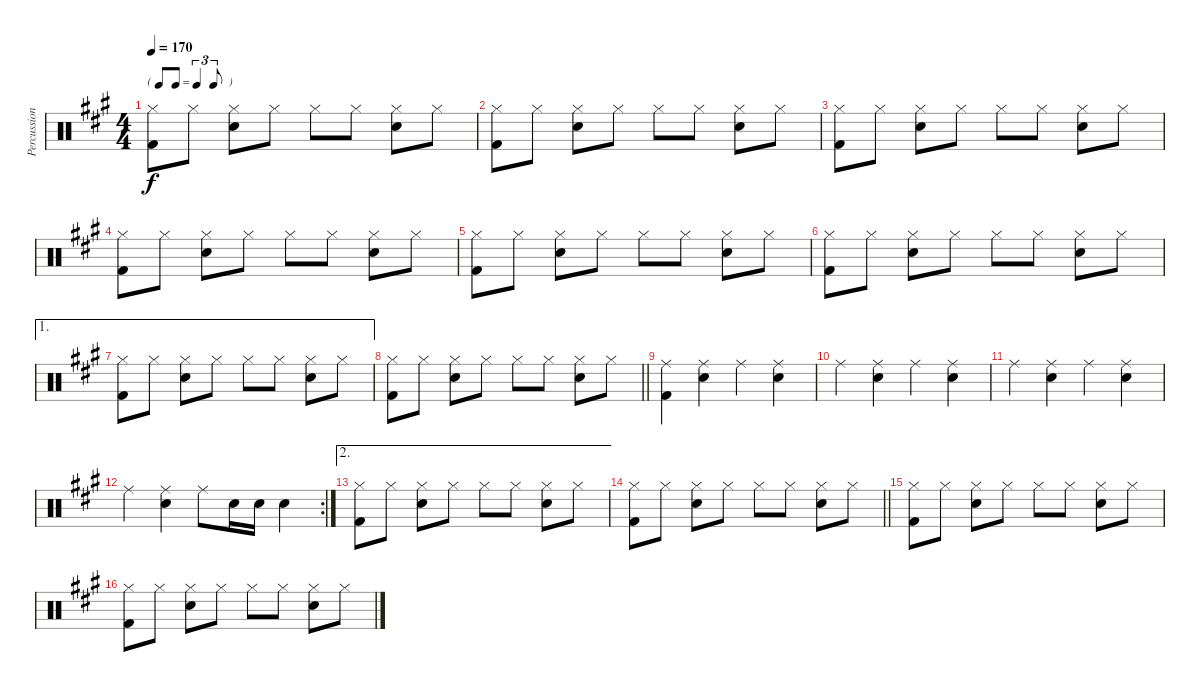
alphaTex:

\track ("Percussion" "Percussion") {instrument percussion}
\staff {score}
\articulation defaults
\ts (4 4)
\tf triplet8th
\tempo 170
\clef neutral
\ks a
("Hi-Hat (closed)" "Kick (hit) 2").8{dy f} "Hi-Hat (closed)".8 ("Hi-Hat (closed)" "Snare (hit) 2").8 "Hi-Hat (closed)".8 "Hi-Hat (closed)".8 "Hi-Hat (closed)".8 ("Hi-Hat (closed)" "Snare (hit) 2").8 "Hi-Hat (closed)".8 |
("Hi-Hat (closed)" "Kick (hit) 2").8 "Hi-Hat (closed)".8 ("Hi-Hat (closed)" "Snare (hit) 2").8 "Hi-Hat (closed)".8 "Hi-Hat (closed)".8 "Hi-Hat (closed)".8 ("Hi-Hat (closed)" "Snare (hit) 2").8 "Hi-Hat (closed)".8 |
("Hi-Hat (closed)" "Kick (hit) 2").8 "Hi-Hat (closed)".8 ("Hi-Hat (closed)" "Snare (hit) 2").8 "Hi-Hat (closed)".8 "Hi-Hat (closed)".8 "Hi-Hat (closed)".8 ("Hi-Hat (closed)" "Snare (hit) 2").8 "Hi-Hat (closed)".8 |
("Hi-Hat (closed)" "Kick (hit) 2").8 "Hi-Hat (closed)".8 ("Hi-Hat (closed)" "Snare (hit) 2").8 "Hi-Hat (closed)".8 "Hi-Hat (closed)".8 "Hi-Hat (closed)".8 ("Hi-Hat (closed)" "Snare (hit) 2").8 "Hi-Hat (closed)".8 |
("Hi-Hat (closed)" "Kick (hit) 2").8 "Hi-Hat (closed)".8 ("Hi-Hat (closed)" "Snare (hit) 2").8 "Hi-Hat (closed)".8 "Hi-Hat (closed)".8 "Hi-Hat (closed)".8 ("Hi-Hat (closed)" "Snare (hit) 2").8 "Hi-Hat (closed)".8 |
("Hi-Hat (closed)" "Kick (hit) 2").8 "Hi-Hat (closed)".8 ("Hi-Hat (closed)" "Snare (hit) 2").8 "Hi-Hat (closed)".8 "Hi-Hat (closed)".8 "Hi-Hat (closed)".8 ("Hi-Hat (closed)" "Snare (hit) 2").8 "Hi-Hat (closed)".8 |
\ae 1
("Hi-Hat (closed)" "Kick (hit) 2").8 "Hi-Hat (closed)".8 ("Hi-Hat (closed)" "Snare (hit) 2").8 "Hi-Hat (closed)".8 "Hi-Hat (closed)".8 "Hi-Hat (closed)".8 ("Hi-Hat (closed)" "Snare (hit) 2").8 "Hi-Hat (closed)".8 |
\barLineRight lightlight
("Hi-Hat (closed)" "Kick (hit) 2").8 "Hi-Hat (closed)".8 ("Hi-Hat (closed)" "Snare (hit) 2").8 "Hi-Hat (closed)".8 "Hi-Hat (closed)".8 "Hi-Hat (closed)".8 ("Hi-Hat (closed)" "Snare (hit) 2").8 "Hi-Hat (closed)".8 |
("Ride (middle)" "Kick (hit) 2").4 ("Ride (middle)" "Snare (hit) 2").4 "Ride (middle)".4 ("Ride (middle)" "Snare (hit) 2").4 |
"Ride (middle)".4 ("Ride (middle)" "Snare (hit) 2").4 "Ride (middle)".4 ("Ride (middle)" "Snare (hit) 2").4 |
"Ride (middle)".4 ("Ride (middle)" "Snare (hit) 2").4 "Ride (middle)".4 ("Ride (middle)" "Snare (hit) 2").4 |
\rc 2 "Ride (middle)".4
("Ride (middle)" "Snare (hit) 2").4 "Ride (middle)".8 "Snare (hit) 2".16 "Snare (hit) 2".16 "Snare (hit) 2".4 |
\ae 2
("Hi-Hat (closed)" "Kick (hit) 2").8 "Hi-Hat (closed)".8 ("Hi-Hat (closed)" "Snare (hit) 2").8 "Hi-Hat (closed)".8 "Hi-Hat (closed)".8 "Hi-Hat (closed)".8 ("Hi-Hat (closed)" "Snare (hit) 2").8 "Hi-Hat (closed)".8 |
\barLineRight lightlight
("Hi-Hat (closed)" "Kick (hit) 2").8 "Hi-Hat (closed)".8 ("Hi-Hat (closed)" "Snare (hit) 2").8 "Hi-Hat (closed)".8 "Hi-Hat (closed)".8 "Hi-Hat (closed)".8 ("Hi-Hat (closed)" "Snare (hit) 2").8 "Hi-Hat (closed)".8 |
("Hi-Hat (closed)" "Kick (hit) 2").8 "Hi-Hat (closed)".8 ("Hi-Hat (closed)" "Snare (hit) 2").8 "Hi-Hat (closed)".8 "Hi-Hat (closed)".8 "Hi-Hat (closed)".8 ("Hi-Hat (closed)" "Snare (hit) 2").8 "Hi-Hat (closed)".8 |
("Hi-Hat (closed)" "Kick (hit) 2").8 "Hi-Hat (closed)".8 ("Hi-Hat (closed)" "Snare (hit) 2").8 "Hi-Hat (closed)".8 "Hi-Hat (closed)".8 "Hi-Hat (closed)".8 ("Hi-Hat (closed)" "Snare (hit) 2").8 "Hi-Hat (closed)".8
